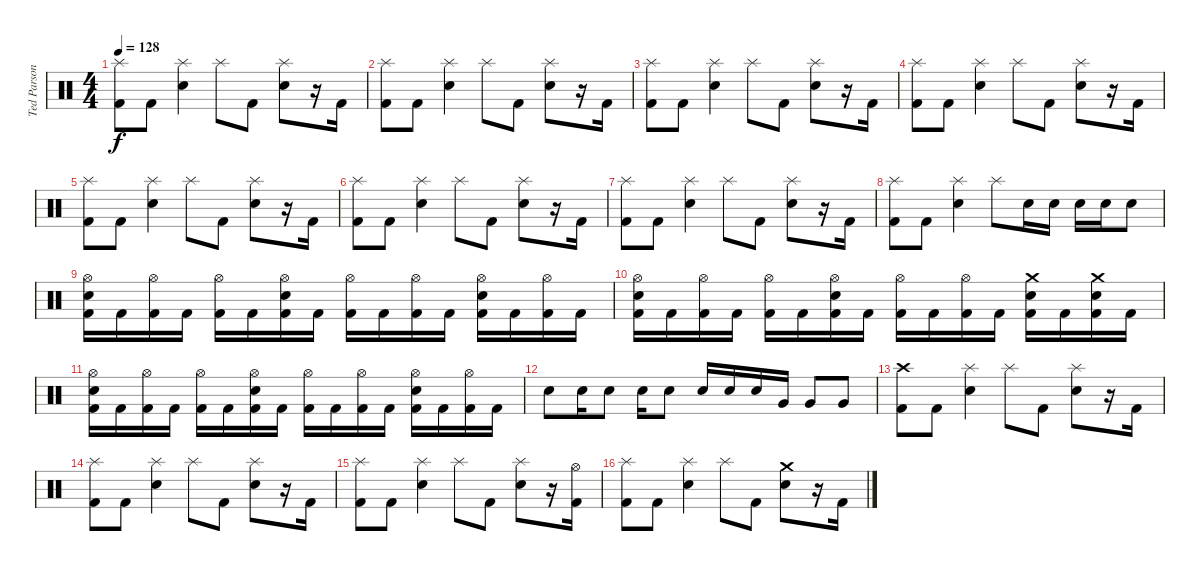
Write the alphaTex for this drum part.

\track ("Ted Parsons" "Ted Parson") {instrument percussion}
\staff {score}
\articulation defaults
\ts (4 4)
\tempo 128
\clef neutral
\ks c
("Splash (hit)" "Kick (hit) 2").8{dy f} "Kick (hit) 2".8 ("Splash (hit)" "Electric Snare (hit)").4 "Splash (hit)".8 "Kick (hit) 2".8 ("Splash (hit)" "Electric Snare (hit)").8 r.16 "Kick (hit) 2".16 |
("Splash (hit)" "Kick (hit) 2").8 "Kick (hit) 2".8 ("Splash (hit)" "Electric Snare (hit)").4 "Splash (hit)".8 "Kick (hit) 2".8 ("Splash (hit)" "Electric Snare (hit)").8 r.16 "Kick (hit) 2".16 |
("Splash (hit)" "Kick (hit) 2").8 "Kick (hit) 2".8 ("Splash (hit)" "Electric Snare (hit)").4 "Splash (hit)".8 "Kick (hit) 2".8 ("Splash (hit)" "Electric Snare (hit)").8 r.16 "Kick (hit) 2".16 |
("Splash (hit)" "Kick (hit) 2").8 "Kick (hit) 2".8 ("Splash (hit)" "Electric Snare (hit)").4 "Splash (hit)".8 "Kick (hit) 2".8 ("Splash (hit)" "Electric Snare (hit)").8 r.16 "Kick (hit) 2".16 |
("Splash (hit)" "Kick (hit) 2").8 "Kick (hit) 2".8 ("Splash (hit)" "Electric Snare (hit)").4 "Splash (hit)".8 "Kick (hit) 2".8 ("Splash (hit)" "Electric Snare (hit)").8 r.16 "Kick (hit) 2".16 |
("Splash (hit)" "Kick (hit) 2").8 "Kick (hit) 2".8 ("Splash (hit)" "Electric Snare (hit)").4 "Splash (hit)".8 "Kick (hit) 2".8 ("Splash (hit)" "Electric Snare (hit)").8 r.16 "Kick (hit) 2".16 |
("Splash (hit)" "Kick (hit) 2").8 "Kick (hit) 2".8 ("Splash (hit)" "Electric Snare (hit)").4 "Splash (hit)".8 "Kick (hit) 2".8 ("Splash (hit)" "Electric Snare (hit)").8 r.16 "Kick (hit) 2".16 |
("Splash (hit)" "Kick (hit) 2").8 "Kick (hit) 2".8 ("Splash (hit)" "Electric Snare (hit)").4 "Splash (hit)".8 "Electric Snare (hit)".16 "Electric Snare (hit)".16 "Electric Snare (hit)".16 "Electric Snare (hit)".16 "Electric Snare (hit)".8 |
("Hi-Hat (open)" "Electric Snare (hit)" "Kick (hit) 2").16 "Kick (hit) 2".16 ("Hi-Hat (open)" "Kick (hit) 2").16 "Kick (hit) 2".16 ("Hi-Hat (open)" "Kick (hit) 2").16 "Kick (hit) 2".16 ("Hi-Hat (open)" "Electric Snare (hit)" "Kick (hit) 2").16 "Kick (hit) 2".16 ("Hi-Hat (open)" "Kick (hit) 2").16 "Kick (hit) 2".16 ("Hi-Hat (open)" "Kick (hit) 2").16 "Kick (hit) 2".16 ("Hi-Hat (open)" "Electric Snare (hit)" "Kick (hit) 2").16 "Kick (hit) 2".16 ("Hi-Hat (open)" "Kick (hit) 2").16 "Kick (hit) 2".16 |
("Hi-Hat (open)" "Electric Snare (hit)" "Kick (hit) 2").16 "Kick (hit) 2".16 ("Hi-Hat (open)" "Kick (hit) 2").16 "Kick (hit) 2".16 ("Hi-Hat (open)" "Kick (hit) 2").16 "Kick (hit) 2".16 ("Hi-Hat (open)" "Electric Snare (hit)" "Kick (hit) 2").16 "Kick (hit) 2".16 ("Hi-Hat (open)" "Kick (hit) 2").16 "Kick (hit) 2".16 ("Hi-Hat (open)" "Kick (hit) 2").16 "Kick (hit) 2".16 ("Crash medium (hit)" "Electric Snare (hit)" "Kick (hit) 2").16 "Kick (hit) 2".16 ("Crash medium (hit)" "Electric Snare (hit)" "Kick (hit) 2").16 "Kick (hit) 2".16 |
("Hi-Hat (open)" "Electric Snare (hit)" "Kick (hit) 2").16 "Kick (hit) 2".16 ("Hi-Hat (open)" "Kick (hit) 2").16 "Kick (hit) 2".16 ("Hi-Hat (open)" "Kick (hit) 2").16 "Kick (hit) 2".16 ("Hi-Hat (open)" "Electric Snare (hit)" "Kick (hit) 2").16 "Kick (hit) 2".16 ("Hi-Hat (open)" "Kick (hit) 2").16 "Kick (hit) 2".16 ("Hi-Hat (open)" "Kick (hit) 2").16 "Kick (hit) 2".16 ("Hi-Hat (open)" "Electric Snare (hit)" "Kick (hit) 2").16 "Kick (hit) 2".16 ("Hi-Hat (open)" "Kick (hit) 2").16 "Kick (hit) 2".16 |
"Electric Snare (hit)".8 "Electric Snare (hit)".16 "Electric Snare (hit)".8 "Electric Snare (hit)".16 "Electric Snare (hit)".8 "Electric Snare (hit)".16 "Electric Snare (hit)".16 "Electric Snare (hit)".16 "Very Low Tom (hit)".16 "Very Low Tom (hit)".8 "Very Low Tom (hit)".8 |
("Crash high (hit)" "Kick (hit) 2").8 "Kick (hit) 2".8 ("Splash (hit)" "Electric Snare (hit)").4 "Splash (hit)".8 "Kick (hit) 2".8 ("Splash (hit)" "Electric Snare (hit)").8 r.16 "Kick (hit) 2".16 |
("Splash (hit)" "Kick (hit) 2").8 "Kick (hit) 2".8 ("Splash (hit)" "Electric Snare (hit)").4 "Splash (hit)".8 "Kick (hit) 2".8 ("Splash (hit)" "Electric Snare (hit)").8 r.16 "Kick (hit) 2".16 |
("Splash (hit)" "Kick (hit) 2").8 "Kick (hit) 2".8 ("Splash (hit)" "Electric Snare (hit)").4 "Splash (hit)".8 "Kick (hit) 2".8 ("Splash (hit)" "Electric Snare (hit)").8 r.16 ("Hi-Hat (open)" "Kick (hit) 2").16 |
("Splash (hit)" "Kick (hit) 2").8 "Kick (hit) 2".8 ("Splash (hit)" "Electric Snare (hit)").4 "Splash (hit)".8 "Kick (hit) 2".8 ("Crash medium (hit)" "Electric Snare (hit)").8 r.16 "Kick (hit) 2".16
